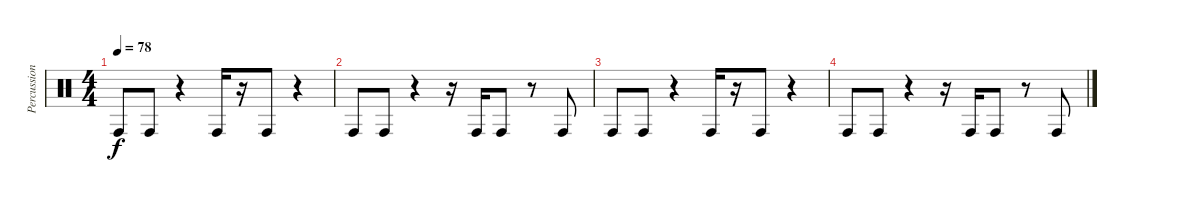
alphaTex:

\track ("Percussion" "Percussion") {instrument percussion}
\staff {score}
\articulation defaults
\ts (4 4)
\tempo 78
\clef neutral
\ks c "Conga high (hit)".8{dy f} "Conga high (hit)".8
r.4 "Conga high (hit)".16 r.16 "Conga high (hit)".8 r.4 |
"Conga high (hit)".8 "Conga high (hit)".8 r.4 r.16 "Conga high (hit)".16 "Conga high (hit)".8 r.8 "Conga high (hit)".8 |
"Conga high (hit)".8 "Conga high (hit)".8 r.4 "Conga high (hit)".16 r.16 "Conga high (hit)".8 r.4 |
"Conga high (hit)".8 "Conga high (hit)".8 r.4 r.16 "Conga high (hit)".16 "Conga high (hit)".8 r.8 "Conga high (hit)".8
